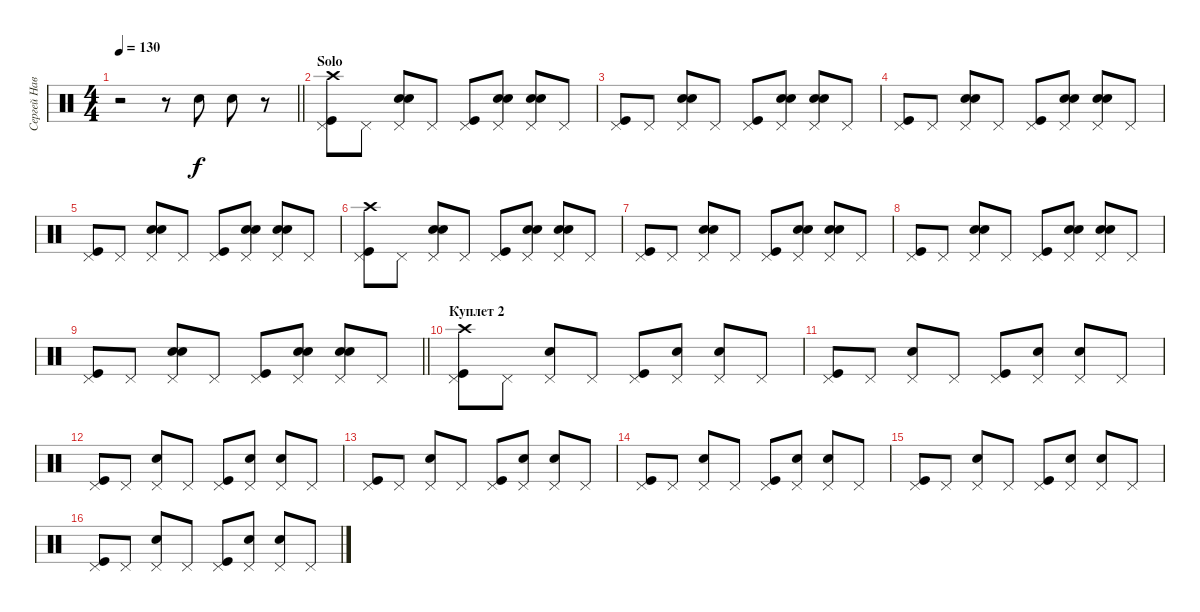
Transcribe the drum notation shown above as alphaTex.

\track ("Сергей Наветный" "Сергей Нав") {instrument percussion}
\staff {score}
\articulation defaults
\ts (4 4)
\tempo 130
\clef neutral
\barLineRight lightlight
\ks c
r.2{dy f} r.8 "Snare (hit) 2".8 "Snare (hit) 2".8 r.8 |
\section ("" "Solo")
("Crash high (hit)" "Kick (hit)" "Pedal Hi-Hat (hit)").8 "Pedal Hi-Hat (hit)".8 ("Hand Clap (hit)" "Snare (hit) 2" "Pedal Hi-Hat (hit)").8 "Pedal Hi-Hat (hit)".8 ("Kick (hit)" "Pedal Hi-Hat (hit)").8 ("Hand Clap (hit)" "Snare (hit) 2" "Pedal Hi-Hat (hit)").8 ("Hand Clap (hit)" "Snare (hit) 2" "Pedal Hi-Hat (hit)").8 "Pedal Hi-Hat (hit)".8 |
("Kick (hit)" "Pedal Hi-Hat (hit)").8 "Pedal Hi-Hat (hit)".8 ("Hand Clap (hit)" "Snare (hit) 2" "Pedal Hi-Hat (hit)").8 "Pedal Hi-Hat (hit)".8 ("Kick (hit)" "Pedal Hi-Hat (hit)").8 ("Hand Clap (hit)" "Snare (hit) 2" "Pedal Hi-Hat (hit)").8 ("Hand Clap (hit)" "Snare (hit) 2" "Pedal Hi-Hat (hit)").8 "Pedal Hi-Hat (hit)".8 |
("Kick (hit)" "Pedal Hi-Hat (hit)").8 "Pedal Hi-Hat (hit)".8 ("Hand Clap (hit)" "Snare (hit) 2" "Pedal Hi-Hat (hit)").8 "Pedal Hi-Hat (hit)".8 ("Kick (hit)" "Pedal Hi-Hat (hit)").8 ("Hand Clap (hit)" "Snare (hit) 2" "Pedal Hi-Hat (hit)").8 ("Hand Clap (hit)" "Snare (hit) 2" "Pedal Hi-Hat (hit)").8 "Pedal Hi-Hat (hit)".8 |
("Kick (hit)" "Pedal Hi-Hat (hit)").8 "Pedal Hi-Hat (hit)".8 ("Hand Clap (hit)" "Snare (hit) 2" "Pedal Hi-Hat (hit)").8 "Pedal Hi-Hat (hit)".8 ("Kick (hit)" "Pedal Hi-Hat (hit)").8 ("Hand Clap (hit)" "Snare (hit) 2" "Pedal Hi-Hat (hit)").8 ("Hand Clap (hit)" "Snare (hit) 2" "Pedal Hi-Hat (hit)").8 "Pedal Hi-Hat (hit)".8 |
("Crash high (hit)" "Kick (hit)" "Pedal Hi-Hat (hit)").8 "Pedal Hi-Hat (hit)".8 ("Hand Clap (hit)" "Snare (hit) 2" "Pedal Hi-Hat (hit)").8 "Pedal Hi-Hat (hit)".8 ("Kick (hit)" "Pedal Hi-Hat (hit)").8 ("Hand Clap (hit)" "Snare (hit) 2" "Pedal Hi-Hat (hit)").8 ("Hand Clap (hit)" "Snare (hit) 2" "Pedal Hi-Hat (hit)").8 "Pedal Hi-Hat (hit)".8 |
("Kick (hit)" "Pedal Hi-Hat (hit)").8 "Pedal Hi-Hat (hit)".8 ("Hand Clap (hit)" "Snare (hit) 2" "Pedal Hi-Hat (hit)").8 "Pedal Hi-Hat (hit)".8 ("Kick (hit)" "Pedal Hi-Hat (hit)").8 ("Hand Clap (hit)" "Snare (hit) 2" "Pedal Hi-Hat (hit)").8 ("Hand Clap (hit)" "Snare (hit) 2" "Pedal Hi-Hat (hit)").8 "Pedal Hi-Hat (hit)".8 |
("Kick (hit)" "Pedal Hi-Hat (hit)").8 "Pedal Hi-Hat (hit)".8 ("Hand Clap (hit)" "Snare (hit) 2" "Pedal Hi-Hat (hit)").8 "Pedal Hi-Hat (hit)".8 ("Kick (hit)" "Pedal Hi-Hat (hit)").8 ("Hand Clap (hit)" "Snare (hit) 2" "Pedal Hi-Hat (hit)").8 ("Hand Clap (hit)" "Snare (hit) 2" "Pedal Hi-Hat (hit)").8 "Pedal Hi-Hat (hit)".8 |
\barLineRight lightlight
("Kick (hit)" "Pedal Hi-Hat (hit)").8 "Pedal Hi-Hat (hit)".8 ("Hand Clap (hit)" "Snare (hit) 2" "Pedal Hi-Hat (hit)").8 "Pedal Hi-Hat (hit)".8 ("Kick (hit)" "Pedal Hi-Hat (hit)").8 ("Hand Clap (hit)" "Snare (hit) 2" "Pedal Hi-Hat (hit)").8 ("Hand Clap (hit)" "Snare (hit) 2" "Pedal Hi-Hat (hit)").8 "Pedal Hi-Hat (hit)".8 |
\section ("" "Куплет 2")
("Pedal Hi-Hat (hit)" "Kick (hit)" "Crash high (hit)").8 "Pedal Hi-Hat (hit)".8 ("Pedal Hi-Hat (hit)" "Snare (hit) 2").8 "Pedal Hi-Hat (hit)".8 ("Kick (hit)" "Pedal Hi-Hat (hit)").8 ("Snare (hit) 2" "Pedal Hi-Hat (hit)").8 ("Snare (hit) 2" "Pedal Hi-Hat (hit)").8 "Pedal Hi-Hat (hit)".8 |
("Pedal Hi-Hat (hit)" "Kick (hit)").8 "Pedal Hi-Hat (hit)".8 ("Pedal Hi-Hat (hit)" "Snare (hit) 2").8 "Pedal Hi-Hat (hit)".8 ("Kick (hit)" "Pedal Hi-Hat (hit)").8 ("Snare (hit) 2" "Pedal Hi-Hat (hit)").8 ("Snare (hit) 2" "Pedal Hi-Hat (hit)").8 "Pedal Hi-Hat (hit)".8 |
("Pedal Hi-Hat (hit)" "Kick (hit)").8 "Pedal Hi-Hat (hit)".8 ("Pedal Hi-Hat (hit)" "Snare (hit) 2").8 "Pedal Hi-Hat (hit)".8 ("Kick (hit)" "Pedal Hi-Hat (hit)").8 ("Snare (hit) 2" "Pedal Hi-Hat (hit)").8 ("Snare (hit) 2" "Pedal Hi-Hat (hit)").8 "Pedal Hi-Hat (hit)".8 |
("Pedal Hi-Hat (hit)" "Kick (hit)").8 "Pedal Hi-Hat (hit)".8 ("Pedal Hi-Hat (hit)" "Snare (hit) 2").8 "Pedal Hi-Hat (hit)".8 ("Kick (hit)" "Pedal Hi-Hat (hit)").8 ("Snare (hit) 2" "Pedal Hi-Hat (hit)").8 ("Snare (hit) 2" "Pedal Hi-Hat (hit)").8 "Pedal Hi-Hat (hit)".8 |
("Pedal Hi-Hat (hit)" "Kick (hit)").8 "Pedal Hi-Hat (hit)".8 ("Pedal Hi-Hat (hit)" "Snare (hit) 2").8 "Pedal Hi-Hat (hit)".8 ("Kick (hit)" "Pedal Hi-Hat (hit)").8 ("Snare (hit) 2" "Pedal Hi-Hat (hit)").8 ("Snare (hit) 2" "Pedal Hi-Hat (hit)").8 "Pedal Hi-Hat (hit)".8 |
("Pedal Hi-Hat (hit)" "Kick (hit)").8 "Pedal Hi-Hat (hit)".8 ("Pedal Hi-Hat (hit)" "Snare (hit) 2").8 "Pedal Hi-Hat (hit)".8 ("Kick (hit)" "Pedal Hi-Hat (hit)").8 ("Snare (hit) 2" "Pedal Hi-Hat (hit)").8 ("Snare (hit) 2" "Pedal Hi-Hat (hit)").8 "Pedal Hi-Hat (hit)".8 |
("Pedal Hi-Hat (hit)" "Kick (hit)").8 "Pedal Hi-Hat (hit)".8 ("Pedal Hi-Hat (hit)" "Snare (hit) 2").8 "Pedal Hi-Hat (hit)".8 ("Kick (hit)" "Pedal Hi-Hat (hit)").8 ("Snare (hit) 2" "Pedal Hi-Hat (hit)").8 ("Snare (hit) 2" "Pedal Hi-Hat (hit)").8 "Pedal Hi-Hat (hit)".8
